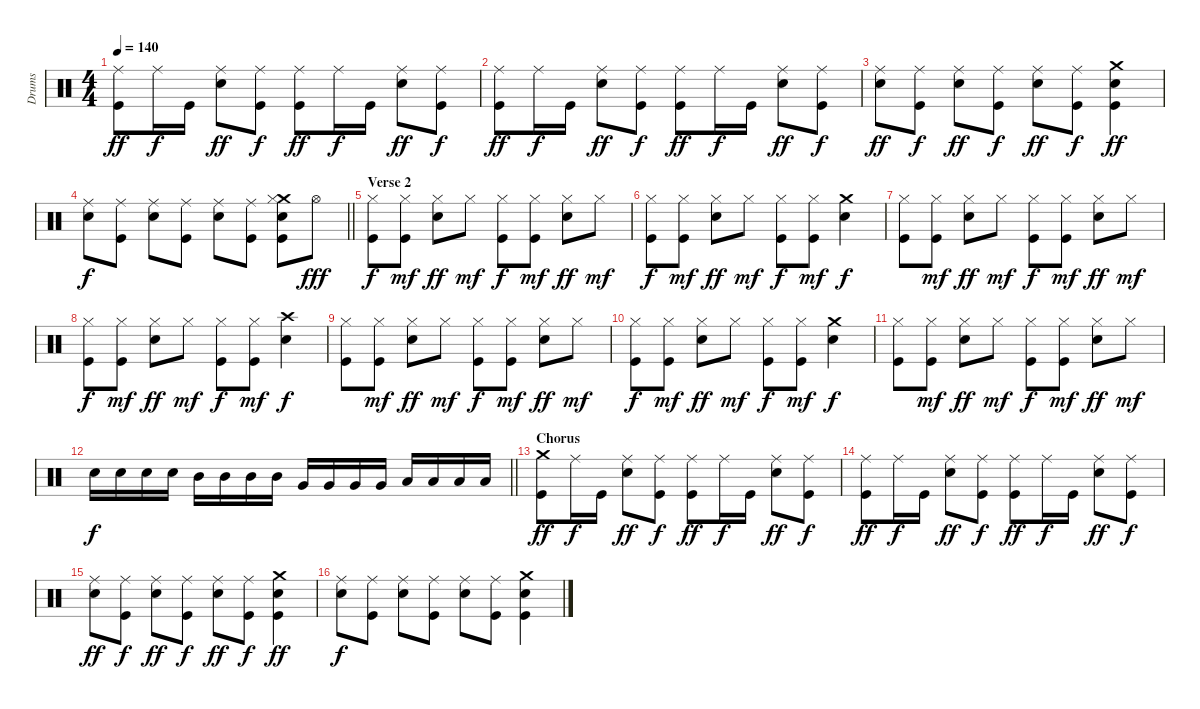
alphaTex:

\track ("Drums" "Drums") {instrument percussion}
\staff {score}
\articulation defaults
\ts (4 4)
\tempo 140
\clef neutral
\ks c
("Ride (middle)" "Kick (hit)").8{dy ff} "Ride (middle)".16{dy f} "Kick (hit)".16 ("Ride (middle)" "Snare (hit) 2").8{dy ff} ("Ride (middle)" "Kick (hit)").8{dy f} ("Ride (middle)" "Kick (hit)").8{dy ff} "Ride (middle)".16{dy f} "Kick (hit)".16 ("Ride (middle)" "Snare (hit) 2").8{dy ff} ("Ride (middle)" "Kick (hit)").8{dy f} |
("Ride (middle)" "Kick (hit)").8{dy ff} "Ride (middle)".16{dy f} "Kick (hit)".16 ("Ride (middle)" "Snare (hit) 2").8{dy ff} ("Ride (middle)" "Kick (hit)").8{dy f} ("Ride (middle)" "Kick (hit)").8{dy ff} "Ride (middle)".16{dy f} "Kick (hit)".16 ("Ride (middle)" "Snare (hit) 2").8{dy ff} ("Ride (middle)" "Kick (hit)").8{dy f} |
("Ride (middle)" "Snare (hit) 2").8{dy ff} ("Ride (middle)" "Kick (hit)").8{dy f} ("Ride (middle)" "Snare (hit) 2").8{dy ff} ("Ride (middle)" "Kick (hit)").8{dy f} ("Ride (middle)" "Snare (hit) 2").8{dy ff} ("Ride (middle)" "Kick (hit)").8{dy f} ("Crash medium (hit)" "Snare (hit) 2" "Kick (hit)").4{dy ff} |
\barLineRight lightlight
("Ride (middle)" "Snare (hit) 2").8{dy f} ("Ride (middle)" "Kick (hit)").8 ("Ride (middle)" "Snare (hit) 2").8 ("Ride (middle)" "Kick (hit)").8 ("Ride (middle)" "Snare (hit) 2").8 ("Ride (middle)" "Kick (hit)").8 ("Crash medium (hit)" "Hi-Hat (closed)" "Snare (hit) 2" "Kick (hit)").8 "Hi-Hat (open)".8{dy fff} |
\section ("" "Verse 2")
("Hi-Hat (closed)" "Kick (hit)").8{dy f} ("Hi-Hat (closed)" "Kick (hit)").8{dy mf} ("Snare (hit) 2" "Hi-Hat (closed)").8{dy ff} "Hi-Hat (closed)".8{dy mf} ("Hi-Hat (closed)" "Kick (hit)").8{dy f} ("Hi-Hat (closed)" "Kick (hit)").8{dy mf} ("Snare (hit) 2" "Hi-Hat (closed)").8{dy ff} "Hi-Hat (closed)".8{dy mf} |
("Hi-Hat (closed)" "Kick (hit)").8{dy f} ("Hi-Hat (closed)" "Kick (hit)").8{dy mf} ("Snare (hit) 2" "Hi-Hat (closed)").8{dy ff} "Hi-Hat (closed)".8{dy mf} ("Hi-Hat (closed)" "Kick (hit)").8{dy f} ("Hi-Hat (closed)" "Kick (hit)").8{dy mf} ("Crash medium (hit)" "Snare (hit) 2").4{dy f} |
("Hi-Hat (closed)" "Kick (hit)").8 ("Hi-Hat (closed)" "Kick (hit)").8{dy mf} ("Snare (hit) 2" "Hi-Hat (closed)").8{dy ff} "Hi-Hat (closed)".8{dy mf} ("Hi-Hat (closed)" "Kick (hit)").8{dy f} ("Hi-Hat (closed)" "Kick (hit)").8{dy mf} ("Snare (hit) 2" "Hi-Hat (closed)").8{dy ff} "Hi-Hat (closed)".8{dy mf} |
("Hi-Hat (closed)" "Kick (hit)").8{dy f} ("Hi-Hat (closed)" "Kick (hit)").8{dy mf} ("Snare (hit) 2" "Hi-Hat (closed)").8{dy ff} "Hi-Hat (closed)".8{dy mf} ("Hi-Hat (closed)" "Kick (hit)").8{dy f} ("Hi-Hat (closed)" "Kick (hit)").8{dy mf} ("Crash high (hit)" "Snare (hit) 2").4{dy f} |
("Hi-Hat (closed)" "Kick (hit)").8 ("Hi-Hat (closed)" "Kick (hit)").8{dy mf} ("Snare (hit) 2" "Hi-Hat (closed)").8{dy ff} "Hi-Hat (closed)".8{dy mf} ("Hi-Hat (closed)" "Kick (hit)").8{dy f} ("Hi-Hat (closed)" "Kick (hit)").8{dy mf} ("Snare (hit) 2" "Hi-Hat (closed)").8{dy ff} "Hi-Hat (closed)".8{dy mf} |
("Hi-Hat (closed)" "Kick (hit)").8{dy f} ("Hi-Hat (closed)" "Kick (hit)").8{dy mf} ("Snare (hit) 2" "Hi-Hat (closed)").8{dy ff} "Hi-Hat (closed)".8{dy mf} ("Hi-Hat (closed)" "Kick (hit)").8{dy f} ("Hi-Hat (closed)" "Kick (hit)").8{dy mf} ("Crash medium (hit)" "Snare (hit) 2").4{dy f} |
("Hi-Hat (closed)" "Kick (hit)").8 ("Hi-Hat (closed)" "Kick (hit)").8{dy mf} ("Snare (hit) 2" "Hi-Hat (closed)").8{dy ff} "Hi-Hat (closed)".8{dy mf} ("Hi-Hat (closed)" "Kick (hit)").8{dy f} ("Hi-Hat (closed)" "Kick (hit)").8{dy mf} ("Snare (hit) 2" "Hi-Hat (closed)").8{dy ff} "Hi-Hat (closed)".8{dy mf} |
\barLineRight lightlight "Snare (hit) 2".16{dy f} "Snare (hit) 2".16 "Snare (hit) 2".16 "Snare (hit) 2".16 "Mid Tom (hit)".16 "Mid Tom (hit)".16 "Mid Tom (hit)".16 "Mid Tom (hit)".16 "Very Low Tom (hit)".16 "Very Low Tom (hit)".16 "Very Low Tom (hit)".16 "Very Low Tom (hit)".16 "Low Floor Tom (hit)".16 "Low Floor Tom (hit)".16 "Low Floor Tom (hit)".16 "Low Floor Tom (hit)".16
|
\section ("" "Chorus")
("Crash medium (hit)" "Kick (hit)").8{dy ff} "Ride (middle)".16{dy f} "Kick (hit)".16 ("Ride (middle)" "Snare (hit) 2").8{dy ff} ("Ride (middle)" "Kick (hit)").8{dy f} ("Ride (middle)" "Kick (hit)").8{dy ff} "Ride (middle)".16{dy f} "Kick (hit)".16 ("Ride (middle)" "Snare (hit) 2").8{dy ff} ("Ride (middle)" "Kick (hit)").8{dy f} |
("Ride (middle)" "Kick (hit)").8{dy ff} "Ride (middle)".16{dy f} "Kick (hit)".16 ("Ride (middle)" "Snare (hit) 2").8{dy ff} ("Ride (middle)" "Kick (hit)").8{dy f} ("Ride (middle)" "Kick (hit)").8{dy ff} "Ride (middle)".16{dy f} "Kick (hit)".16 ("Ride (middle)" "Snare (hit) 2").8{dy ff} ("Ride (middle)" "Kick (hit)").8{dy f} |
("Ride (middle)" "Snare (hit) 2").8{dy ff} ("Ride (middle)" "Kick (hit)").8{dy f} ("Ride (middle)" "Snare (hit) 2").8{dy ff} ("Ride (middle)" "Kick (hit)").8{dy f} ("Ride (middle)" "Snare (hit) 2").8{dy ff} ("Ride (middle)" "Kick (hit)").8{dy f} ("Crash medium (hit)" "Snare (hit) 2" "Kick (hit)").4{dy ff} |
("Ride (middle)" "Snare (hit) 2").8{dy f} ("Ride (middle)" "Kick (hit)").8 ("Ride (middle)" "Snare (hit) 2").8 ("Ride (middle)" "Kick (hit)").8 ("Ride (middle)" "Snare (hit) 2").8 ("Ride (middle)" "Kick (hit)").8 ("Crash medium (hit)" "Snare (hit) 2" "Kick (hit)").4
